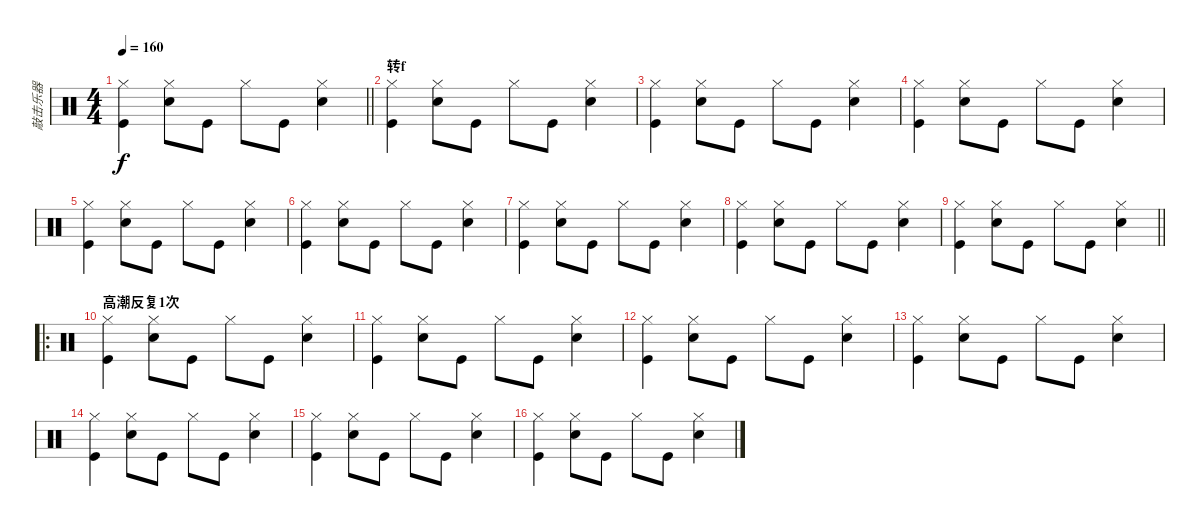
\track ("敲击乐器" "敲击乐器") {instrument percussion}
\staff {score}
\articulation defaults
\ts (4 4)
\tempo 160
\clef neutral
\barLineRight lightlight
\ks c
("Kick (hit)" "Hi-Hat (closed)").4{dy f} ("Hi-Hat (closed)" "Snare (hit) 2").8 "Kick (hit)".8 "Hi-Hat (closed)".8 "Kick (hit)".8 ("Hi-Hat (closed)" "Snare (hit) 2").4 |
\section ("" "转f")
("Kick (hit)" "Hi-Hat (closed)").4 ("Hi-Hat (closed)" "Snare (hit) 2").8 "Kick (hit)".8 "Hi-Hat (closed)".8 "Kick (hit)".8 ("Hi-Hat (closed)" "Snare (hit) 2").4 |
("Kick (hit)" "Hi-Hat (closed)").4 ("Hi-Hat (closed)" "Snare (hit) 2").8 "Kick (hit)".8 "Hi-Hat (closed)".8 "Kick (hit)".8 ("Hi-Hat (closed)" "Snare (hit) 2").4 |
("Kick (hit)" "Hi-Hat (closed)").4 ("Hi-Hat (closed)" "Snare (hit) 2").8 "Kick (hit)".8 "Hi-Hat (closed)".8 "Kick (hit)".8 ("Hi-Hat (closed)" "Snare (hit) 2").4 |
("Kick (hit)" "Hi-Hat (closed)").4 ("Hi-Hat (closed)" "Snare (hit) 2").8 "Kick (hit)".8 "Hi-Hat (closed)".8 "Kick (hit)".8 ("Hi-Hat (closed)" "Snare (hit) 2").4 |
("Kick (hit)" "Hi-Hat (closed)").4 ("Hi-Hat (closed)" "Snare (hit) 2").8 "Kick (hit)".8 "Hi-Hat (closed)".8 "Kick (hit)".8 ("Hi-Hat (closed)" "Snare (hit) 2").4 |
("Kick (hit)" "Hi-Hat (closed)").4 ("Hi-Hat (closed)" "Snare (hit) 2").8 "Kick (hit)".8 "Hi-Hat (closed)".8 "Kick (hit)".8 ("Hi-Hat (closed)" "Snare (hit) 2").4 |
("Kick (hit)" "Hi-Hat (closed)").4 ("Hi-Hat (closed)" "Snare (hit) 2").8 "Kick (hit)".8 "Hi-Hat (closed)".8 "Kick (hit)".8 ("Hi-Hat (closed)" "Snare (hit) 2").4 |
\barLineRight lightlight
("Kick (hit)" "Hi-Hat (closed)").4 ("Hi-Hat (closed)" "Snare (hit) 2").8 "Kick (hit)".8 "Hi-Hat (closed)".8 "Kick (hit)".8 ("Hi-Hat (closed)" "Snare (hit) 2").4 |
\ro
\section ("" "高潮反复1次")
("Kick (hit)" "Hi-Hat (closed)").4 ("Hi-Hat (closed)" "Snare (hit) 2").8 "Kick (hit)".8 "Hi-Hat (closed)".8 "Kick (hit)".8 ("Hi-Hat (closed)" "Snare (hit) 2").4 |
("Kick (hit)" "Hi-Hat (closed)").4 ("Hi-Hat (closed)" "Snare (hit) 2").8 "Kick (hit)".8 "Hi-Hat (closed)".8 "Kick (hit)".8 ("Hi-Hat (closed)" "Snare (hit) 2").4 |
("Kick (hit)" "Hi-Hat (closed)").4 ("Hi-Hat (closed)" "Snare (hit) 2").8 "Kick (hit)".8 "Hi-Hat (closed)".8 "Kick (hit)".8 ("Hi-Hat (closed)" "Snare (hit) 2").4 |
("Kick (hit)" "Hi-Hat (closed)").4 ("Hi-Hat (closed)" "Snare (hit) 2").8 "Kick (hit)".8 "Hi-Hat (closed)".8 "Kick (hit)".8 ("Hi-Hat (closed)" "Snare (hit) 2").4 |
("Kick (hit)" "Hi-Hat (closed)").4 ("Hi-Hat (closed)" "Snare (hit) 2").8 "Kick (hit)".8 "Hi-Hat (closed)".8 "Kick (hit)".8 ("Hi-Hat (closed)" "Snare (hit) 2").4 |
("Kick (hit)" "Hi-Hat (closed)").4 ("Hi-Hat (closed)" "Snare (hit) 2").8 "Kick (hit)".8 "Hi-Hat (closed)".8 "Kick (hit)".8 ("Hi-Hat (closed)" "Snare (hit) 2").4 |
("Kick (hit)" "Hi-Hat (closed)").4 ("Hi-Hat (closed)" "Snare (hit) 2").8 "Kick (hit)".8 "Hi-Hat (closed)".8 "Kick (hit)".8 ("Hi-Hat (closed)" "Snare (hit) 2").4
